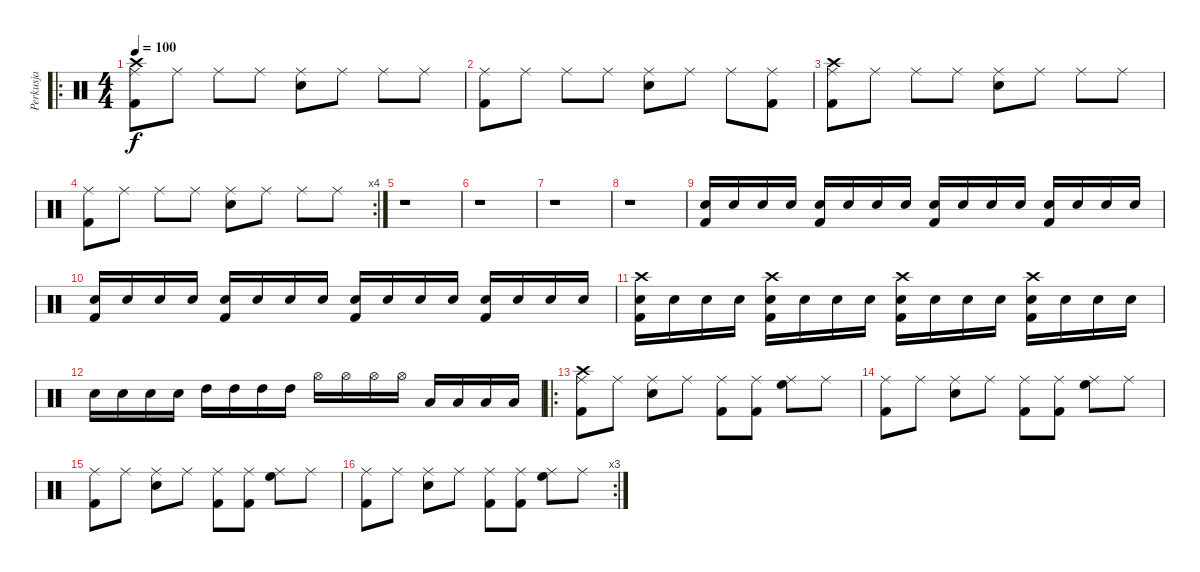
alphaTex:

\track ("Perkusja" "Perkusja") {instrument percussion}
\staff {score}
\articulation defaults
\ro
\ts (4 4)
\tempo 100
\clef neutral
\ks c
("Crash high (hit)" "Ride (middle)" "Kick (hit) 2").8{dy f} "Ride (middle)".8 "Ride (middle)".8 "Ride (middle)".8 ("Ride (middle)" "Electric Snare (hit)").8 "Ride (middle)".8 "Ride (middle)".8 "Ride (middle)".8 |
("Ride (middle)" "Kick (hit) 2").8 "Ride (middle)".8 "Ride (middle)".8 "Ride (middle)".8 ("Ride (middle)" "Electric Snare (hit)").8 "Ride (middle)".8 "Ride (middle)".8 ("Ride (middle)" "Kick (hit) 2").8 |
("Crash high (hit)" "Ride (middle)" "Kick (hit) 2").8 "Ride (middle)".8 "Ride (middle)".8 "Ride (middle)".8 ("Ride (middle)" "Electric Snare (hit)").8 "Ride (middle)".8 "Ride (middle)".8 "Ride (middle)".8 |
\rc 4
("Ride (middle)" "Kick (hit) 2").8 "Ride (middle)".8 "Ride (middle)".8 "Ride (middle)".8 ("Ride (middle)" "Electric Snare (hit)").8 "Ride (middle)".8 "Ride (middle)".8 "Ride (middle)".8 |
r.1 |
r.1 |
r.1 |
r.1 |
("Kick (hit) 2" "Electric Snare (hit)").16 "Electric Snare (hit)".16 "Electric Snare (hit)".16 "Electric Snare (hit)".16 ("Kick (hit) 2" "Electric Snare (hit)").16 "Electric Snare (hit)".16 "Electric Snare (hit)".16 "Electric Snare (hit)".16 ("Kick (hit) 2" "Electric Snare (hit)").16 "Electric Snare (hit)".16 "Electric Snare (hit)".16 "Electric Snare (hit)".16 ("Kick (hit) 2" "Electric Snare (hit)").16 "Electric Snare (hit)".16 "Electric Snare (hit)".16 "Electric Snare (hit)".16 |
("Kick (hit) 2" "Electric Snare (hit)").16 "Electric Snare (hit)".16 "Electric Snare (hit)".16 "Electric Snare (hit)".16 ("Kick (hit) 2" "Electric Snare (hit)").16 "Electric Snare (hit)".16 "Electric Snare (hit)".16 "Electric Snare (hit)".16 ("Kick (hit) 2" "Electric Snare (hit)").16 "Electric Snare (hit)".16 "Electric Snare (hit)".16 "Electric Snare (hit)".16 ("Kick (hit) 2" "Electric Snare (hit)").16 "Electric Snare (hit)".16 "Electric Snare (hit)".16 "Electric Snare (hit)".16 |
("Crash high (hit)" "Kick (hit) 2" "Electric Snare (hit)").16 "Electric Snare (hit)".16 "Electric Snare (hit)".16 "Electric Snare (hit)".16 ("Crash high (hit)" "Kick (hit) 2" "Electric Snare (hit)").16 "Electric Snare (hit)".16 "Electric Snare (hit)".16 "Electric Snare (hit)".16 ("Crash high (hit)" "Kick (hit) 2" "Electric Snare (hit)").16 "Electric Snare (hit)".16 "Electric Snare (hit)".16 "Electric Snare (hit)".16 ("Crash high (hit)" "Kick (hit) 2" "Electric Snare (hit)").16 "Electric Snare (hit)".16 "Electric Snare (hit)".16 "Electric Snare (hit)".16 |
"Snare (hit) 2".16 "Snare (hit) 2".16 "Snare (hit) 2".16 "Snare (hit) 2".16 "High Tom (hit)".16 "High Tom (hit)".16 "High Tom (hit)".16 "High Tom (hit)".16 "Hi-Hat (open)".16 "Hi-Hat (open)".16 "Hi-Hat (open)".16 "Hi-Hat (open)".16 "Low Tom (hit)".16 "Low Tom (hit)".16 "Low Tom (hit)".16 "Low Tom (hit)".16 |
\ro
("Crash high (hit)" "Ride (middle)" "Kick (hit) 2").8 "Ride (middle)".8 ("Ride (middle)" "Electric Snare (hit)").8 "Ride (middle)".8 ("Ride (middle)" "Kick (hit) 2").8 ("Ride (middle)" "Kick (hit) 2").8 ("Ride (middle)" "High Floor Tom (hit)").8 "Ride (middle)".8 |
("Ride (middle)" "Kick (hit) 2").8 "Ride (middle)".8 ("Ride (middle)" "Electric Snare (hit)").8 "Ride (middle)".8 ("Ride (middle)" "Kick (hit) 2").8 ("Ride (middle)" "Kick (hit) 2").8 ("Ride (middle)" "High Floor Tom (hit)").8 "Ride (middle)".8 |
("Ride (middle)" "Kick (hit) 2").8 "Ride (middle)".8 ("Ride (middle)" "Electric Snare (hit)").8 "Ride (middle)".8 ("Ride (middle)" "Kick (hit) 2").8 ("Ride (middle)" "Kick (hit) 2").8 ("Ride (middle)" "High Floor Tom (hit)").8 "Ride (middle)".8 |
\rc 3
("Ride (middle)" "Kick (hit) 2").8 "Ride (middle)".8 ("Ride (middle)" "Electric Snare (hit)").8 "Ride (middle)".8 ("Ride (middle)" "Kick (hit) 2").8 ("Ride (middle)" "Kick (hit) 2").8 ("Ride (middle)" "High Floor Tom (hit)").8 "Ride (middle)".8
